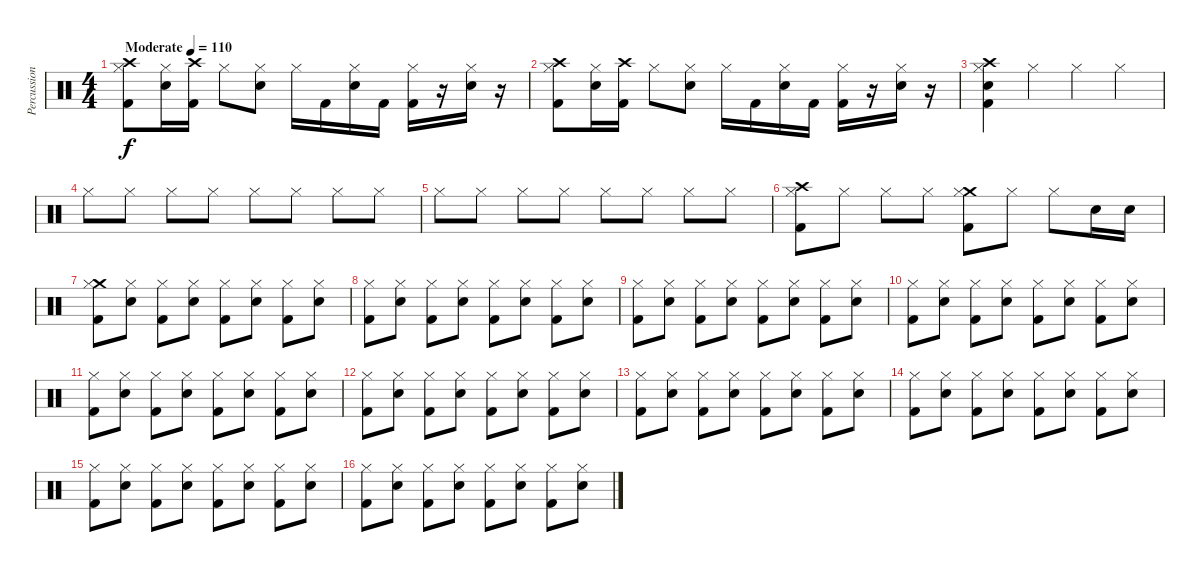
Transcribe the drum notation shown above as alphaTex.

\track ("Percussions" "Percussion") {instrument percussion}
\staff {score}
\articulation defaults
\ts (4 4)
\tempo (110 "Moderate")
\clef neutral
\ks c
("Crash high (hit)" "Hi-Hat (closed)" "Kick (hit) 2").8{dy f} ("Hi-Hat (closed)" "Electric Snare (hit)").16 ("Crash high (hit)" "Kick (hit) 2").16 "Hi-Hat (closed)".8 ("Hi-Hat (closed)" "Electric Snare (hit)").8 "Hi-Hat (closed)".16 "Kick (hit) 2".16 ("Hi-Hat (closed)" "Electric Snare (hit)").16 "Kick (hit) 2".16 ("Hi-Hat (closed)" "Kick (hit) 2").16 r.16 ("Hi-Hat (closed)" "Electric Snare (hit)").16 r.16 |
("Crash high (hit)" "Hi-Hat (closed)" "Kick (hit) 2").8 ("Hi-Hat (closed)" "Electric Snare (hit)").16 ("Crash high (hit)" "Kick (hit) 2").16 "Hi-Hat (closed)".8 ("Hi-Hat (closed)" "Electric Snare (hit)").8 "Hi-Hat (closed)".16 "Kick (hit) 2".16 ("Hi-Hat (closed)" "Electric Snare (hit)").16 "Kick (hit) 2".16 ("Hi-Hat (closed)" "Kick (hit) 2").16 r.16 ("Hi-Hat (closed)" "Electric Snare (hit)").16 r.16 |
("Crash high (hit)" "Hi-Hat (closed)" "Electric Snare (hit)" "Kick (hit) 2").4 "Hi-Hat (closed)".4 "Hi-Hat (closed)".4 "Hi-Hat (closed)".4 |
"Hi-Hat (closed)".8 "Hi-Hat (closed)".8 "Hi-Hat (closed)".8 "Hi-Hat (closed)".8 "Hi-Hat (closed)".8 "Hi-Hat (closed)".8 "Hi-Hat (closed)".8 "Hi-Hat (closed)".8 |
"Hi-Hat (closed)".8 "Hi-Hat (closed)".8 "Hi-Hat (closed)".8 "Hi-Hat (closed)".8 "Hi-Hat (closed)".8 "Hi-Hat (closed)".8 "Hi-Hat (closed)".8 "Hi-Hat (closed)".8 |
("Crash high (hit)" "Hi-Hat (closed)" "Kick (hit) 2").8 "Hi-Hat (closed)".8 "Hi-Hat (closed)".8 "Hi-Hat (closed)".8 ("Crash medium (hit)" "Hi-Hat (closed)" "Kick (hit) 2").8 "Hi-Hat (closed)".8 "Hi-Hat (closed)".8 "Electric Snare (hit)".16 "Electric Snare (hit)".16 |
("Crash medium (hit)" "Hi-Hat (closed)" "Kick (hit) 2").8 ("Hi-Hat (closed)" "Electric Snare (hit)").8 ("Hi-Hat (closed)" "Kick (hit) 2").8 ("Hi-Hat (closed)" "Electric Snare (hit)").8 ("Hi-Hat (closed)" "Kick (hit) 2").8 ("Hi-Hat (closed)" "Electric Snare (hit)").8 ("Hi-Hat (closed)" "Kick (hit) 2").8 ("Hi-Hat (closed)" "Electric Snare (hit)").8 |
("Hi-Hat (closed)" "Kick (hit) 2").8 ("Hi-Hat (closed)" "Electric Snare (hit)").8 ("Hi-Hat (closed)" "Kick (hit) 2").8 ("Hi-Hat (closed)" "Electric Snare (hit)").8 ("Hi-Hat (closed)" "Kick (hit) 2").8 ("Hi-Hat (closed)" "Electric Snare (hit)").8 ("Hi-Hat (closed)" "Kick (hit) 2").8 ("Hi-Hat (closed)" "Electric Snare (hit)").8 |
("Hi-Hat (closed)" "Kick (hit) 2").8 ("Hi-Hat (closed)" "Electric Snare (hit)").8 ("Hi-Hat (closed)" "Kick (hit) 2").8 ("Hi-Hat (closed)" "Electric Snare (hit)").8 ("Hi-Hat (closed)" "Kick (hit) 2").8 ("Hi-Hat (closed)" "Electric Snare (hit)").8 ("Hi-Hat (closed)" "Kick (hit) 2").8 ("Hi-Hat (closed)" "Electric Snare (hit)").8 |
("Hi-Hat (closed)" "Kick (hit) 2").8 ("Hi-Hat (closed)" "Electric Snare (hit)").8 ("Hi-Hat (closed)" "Kick (hit) 2").8 ("Hi-Hat (closed)" "Electric Snare (hit)").8 ("Hi-Hat (closed)" "Kick (hit) 2").8 ("Hi-Hat (closed)" "Electric Snare (hit)").8 ("Hi-Hat (closed)" "Kick (hit) 2").8 ("Hi-Hat (closed)" "Electric Snare (hit)").8 |
("Hi-Hat (closed)" "Kick (hit) 2").8 ("Hi-Hat (closed)" "Electric Snare (hit)").8 ("Hi-Hat (closed)" "Kick (hit) 2").8 ("Hi-Hat (closed)" "Electric Snare (hit)").8 ("Hi-Hat (closed)" "Kick (hit) 2").8 ("Hi-Hat (closed)" "Electric Snare (hit)").8 ("Hi-Hat (closed)" "Kick (hit) 2").8 ("Hi-Hat (closed)" "Electric Snare (hit)").8 |
("Hi-Hat (closed)" "Kick (hit) 2").8 ("Hi-Hat (closed)" "Electric Snare (hit)").8 ("Hi-Hat (closed)" "Kick (hit) 2").8 ("Hi-Hat (closed)" "Electric Snare (hit)").8 ("Hi-Hat (closed)" "Kick (hit) 2").8 ("Hi-Hat (closed)" "Electric Snare (hit)").8 ("Hi-Hat (closed)" "Kick (hit) 2").8 ("Hi-Hat (closed)" "Electric Snare (hit)").8 |
("Hi-Hat (closed)" "Kick (hit) 2").8 ("Hi-Hat (closed)" "Electric Snare (hit)").8 ("Hi-Hat (closed)" "Kick (hit) 2").8 ("Hi-Hat (closed)" "Electric Snare (hit)").8 ("Hi-Hat (closed)" "Kick (hit) 2").8 ("Hi-Hat (closed)" "Electric Snare (hit)").8 ("Hi-Hat (closed)" "Kick (hit) 2").8 ("Hi-Hat (closed)" "Electric Snare (hit)").8 |
("Hi-Hat (closed)" "Kick (hit) 2").8 ("Hi-Hat (closed)" "Electric Snare (hit)").8 ("Hi-Hat (closed)" "Kick (hit) 2").8 ("Hi-Hat (closed)" "Electric Snare (hit)").8 ("Hi-Hat (closed)" "Kick (hit) 2").8 ("Hi-Hat (closed)" "Electric Snare (hit)").8 ("Hi-Hat (closed)" "Kick (hit) 2").8 ("Hi-Hat (closed)" "Electric Snare (hit)").8 |
("Hi-Hat (closed)" "Kick (hit) 2").8 ("Hi-Hat (closed)" "Electric Snare (hit)").8 ("Hi-Hat (closed)" "Kick (hit) 2").8 ("Hi-Hat (closed)" "Electric Snare (hit)").8 ("Hi-Hat (closed)" "Kick (hit) 2").8 ("Hi-Hat (closed)" "Electric Snare (hit)").8 ("Hi-Hat (closed)" "Kick (hit) 2").8 ("Hi-Hat (closed)" "Electric Snare (hit)").8 |
("Hi-Hat (closed)" "Kick (hit) 2").8 ("Hi-Hat (closed)" "Electric Snare (hit)").8 ("Hi-Hat (closed)" "Kick (hit) 2").8 ("Hi-Hat (closed)" "Electric Snare (hit)").8 ("Hi-Hat (closed)" "Kick (hit) 2").8 ("Hi-Hat (closed)" "Electric Snare (hit)").8 ("Hi-Hat (closed)" "Kick (hit) 2").8 ("Hi-Hat (closed)" "Electric Snare (hit)").8
